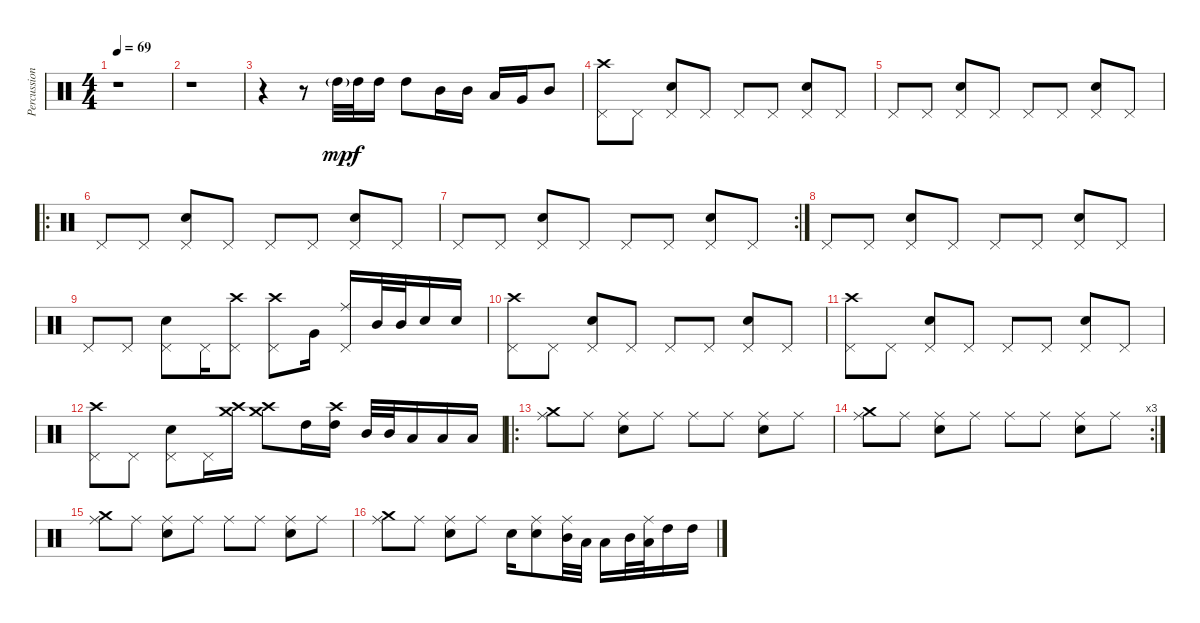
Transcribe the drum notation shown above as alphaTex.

\track ("Percussion" "Percussion") {instrument percussion}
\staff {score}
\articulation defaults
\ts (4 4)
\tempo 69
\clef neutral
\ks c
r.1{dy f} |
r.1 |
r.4 r.8 "High Tom (hit)"{g}.32{dy mp} "High Tom (hit)".32{dy f} "High Tom (hit)".16 "High Tom (hit)".8 "Mid Tom (hit)".16 "Mid Tom (hit)".16 "Low Tom (hit)".16 "Very Low Tom (hit)".16 "Mid Tom (hit)".8 |
("Pedal Hi-Hat (hit)" "Crash high (hit)").8 "Pedal Hi-Hat (hit)".8 ("Pedal Hi-Hat (hit)" "Electric Snare (hit)").8 "Pedal Hi-Hat (hit)".8 "Pedal Hi-Hat (hit)".8 "Pedal Hi-Hat (hit)".8 ("Pedal Hi-Hat (hit)" "Electric Snare (hit)").8 "Pedal Hi-Hat (hit)".8 |
"Pedal Hi-Hat (hit)".8 "Pedal Hi-Hat (hit)".8 ("Pedal Hi-Hat (hit)" "Electric Snare (hit)").8 "Pedal Hi-Hat (hit)".8 "Pedal Hi-Hat (hit)".8 "Pedal Hi-Hat (hit)".8 ("Pedal Hi-Hat (hit)" "Electric Snare (hit)").8 "Pedal Hi-Hat (hit)".8 |
\ro "Pedal Hi-Hat (hit)".8 "Pedal Hi-Hat (hit)".8
("Pedal Hi-Hat (hit)" "Electric Snare (hit)").8 "Pedal Hi-Hat (hit)".8 "Pedal Hi-Hat (hit)".8 "Pedal Hi-Hat (hit)".8 ("Pedal Hi-Hat (hit)" "Electric Snare (hit)").8 "Pedal Hi-Hat (hit)".8 |
\rc 2 "Pedal Hi-Hat (hit)".8 "Pedal Hi-Hat (hit)".8
("Pedal Hi-Hat (hit)" "Electric Snare (hit)").8 "Pedal Hi-Hat (hit)".8 "Pedal Hi-Hat (hit)".8 "Pedal Hi-Hat (hit)".8 ("Pedal Hi-Hat (hit)" "Electric Snare (hit)").8 "Pedal Hi-Hat (hit)".8 |
"Pedal Hi-Hat (hit)".8 "Pedal Hi-Hat (hit)".8 ("Pedal Hi-Hat (hit)" "Electric Snare (hit)").8 "Pedal Hi-Hat (hit)".8 "Pedal Hi-Hat (hit)".8 "Pedal Hi-Hat (hit)".8 ("Pedal Hi-Hat (hit)" "Electric Snare (hit)").8 "Pedal Hi-Hat (hit)".8 |
"Pedal Hi-Hat (hit)".8 "Pedal Hi-Hat (hit)".8 ("Pedal Hi-Hat (hit)" "Electric Snare (hit)").8 "Pedal Hi-Hat (hit)".16 ("Pedal Hi-Hat (hit)" "Crash high (hit)").8 ("Pedal Hi-Hat (hit)" "Crash high (hit)").8 "Very Low Tom (hit)".16 ("Pedal Hi-Hat (hit)" "Ride (middle)").16 "Mid Tom (hit)".32 "Mid Tom (hit)".32 "Electric Snare (hit)".16 "Electric Snare (hit)".16 |
("Pedal Hi-Hat (hit)" "Crash high (hit)").8 "Pedal Hi-Hat (hit)".8 ("Pedal Hi-Hat (hit)" "Electric Snare (hit)").8 "Pedal Hi-Hat (hit)".8 "Pedal Hi-Hat (hit)".8 "Pedal Hi-Hat (hit)".8 ("Pedal Hi-Hat (hit)" "Electric Snare (hit)").8 "Pedal Hi-Hat (hit)".8 |
("Pedal Hi-Hat (hit)" "Crash high (hit)").8 "Pedal Hi-Hat (hit)".8 ("Pedal Hi-Hat (hit)" "Electric Snare (hit)").8 "Pedal Hi-Hat (hit)".8 "Pedal Hi-Hat (hit)".8 "Pedal Hi-Hat (hit)".8 ("Pedal Hi-Hat (hit)" "Electric Snare (hit)").8 "Pedal Hi-Hat (hit)".8 |
("Pedal Hi-Hat (hit)" "Crash high (hit)").8 "Pedal Hi-Hat (hit)".8 ("Pedal Hi-Hat (hit)" "Electric Snare (hit)").8 "Pedal Hi-Hat (hit)".16 ("Crash medium (hit)" "Crash high (hit)").16 ("Crash medium (hit)" "Crash high (hit)").8 "High Tom (hit)".16 ("Crash high (hit)" "High Tom (hit)").16 "Mid Tom (hit)".32 "Mid Tom (hit)".32 "Low Tom (hit)".16 "Low Tom (hit)".16 "Low Tom (hit)".16 |
\ro
("Ride (middle)" "Crash medium (hit)").8 "Ride (middle)".8 ("Ride (middle)" "Electric Snare (hit)").8 "Ride (middle)".8 "Ride (middle)".8 "Ride (middle)".8 ("Ride (middle)" "Electric Snare (hit)").8 "Ride (middle)".8 |
\rc 3
("Ride (middle)" "Crash medium (hit)").8 "Ride (middle)".8 ("Ride (middle)" "Electric Snare (hit)").8 "Ride (middle)".8 "Ride (middle)".8 "Ride (middle)".8 ("Ride (middle)" "Electric Snare (hit)").8 "Ride (middle)".8 |
("Ride (middle)" "Crash medium (hit)").8 "Ride (middle)".8 ("Ride (middle)" "Electric Snare (hit)").8 "Ride (middle)".8 "Ride (middle)".8 "Ride (middle)".8 ("Ride (middle)" "Electric Snare (hit)").8 "Ride (middle)".8 |
("Ride (middle)" "Crash medium (hit)").8 "Ride (middle)".8 ("Ride (middle)" "Electric Snare (hit)").8 "Ride (middle)".8 "Snare (hit) 2".16 ("Ride (middle)" "Snare (hit) 2").8 ("Ride (middle)" "Mid Tom (hit)").32 "Low Tom (hit)".32 "Low Tom (hit)".16 "Mid Tom (hit)".32 ("Ride (middle)" "Low Tom (hit)").32 "High Tom (hit)".16 "High Tom (hit)".16
